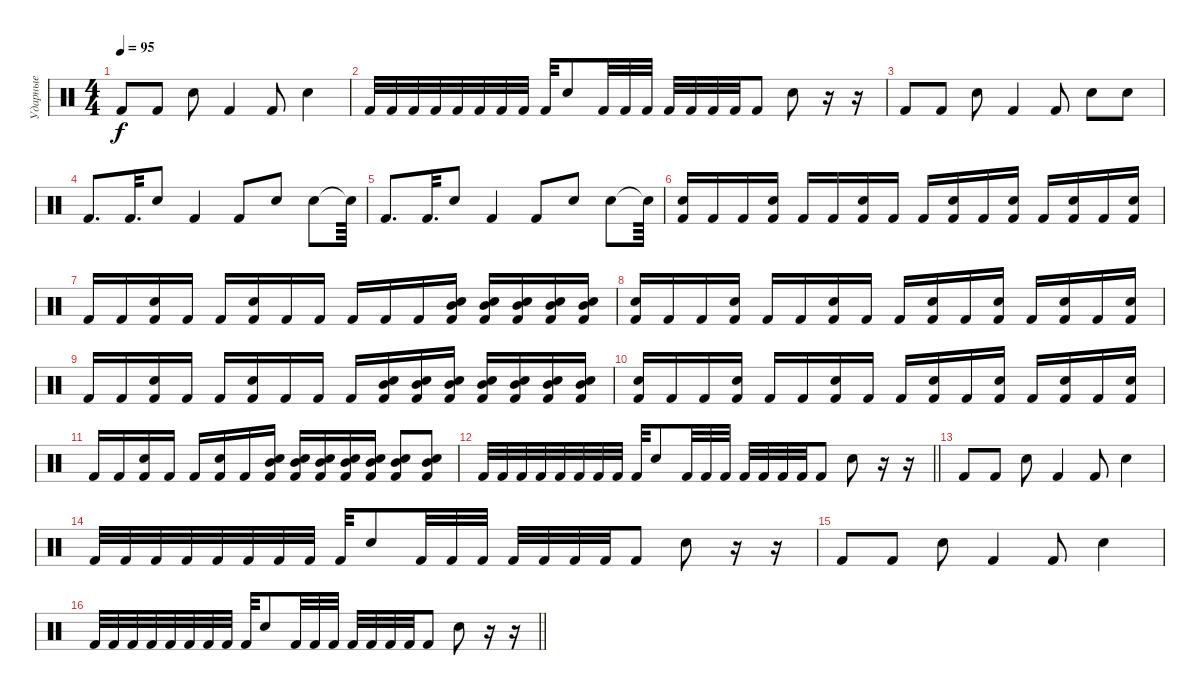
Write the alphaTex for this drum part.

\track ("Ударные" "Ударные") {instrument percussion}
\staff {score}
\articulation defaults
\ts (4 4)
\tempo 95
\clef neutral
\ks c "Kick (hit) 2".8{dy f} "Kick (hit) 2".8 "Electric Snare (hit)".8 "Kick (hit) 2".4 "Kick (hit) 2".8 "Electric Snare (hit)".4
|
"Kick (hit) 2".32 "Kick (hit) 2".32 "Kick (hit) 2".32 "Kick (hit) 2".32 "Kick (hit) 2".32 "Kick (hit) 2".32 "Kick (hit) 2".32 "Kick (hit) 2".32 "Kick (hit) 2".32 "Electric Snare (hit)".8 "Kick (hit) 2".32 "Kick (hit) 2".32 "Kick (hit) 2".32 "Kick (hit) 2".32 "Kick (hit) 2".32 "Kick (hit) 2".32 "Kick (hit) 2".32 "Kick (hit) 2".8 "Electric Snare (hit)".8 r.16 r.16 |
"Kick (hit) 2".8 "Kick (hit) 2".8 "Electric Snare (hit)".8 "Kick (hit) 2".4 "Kick (hit) 2".8 "Electric Snare (hit)".8 "Electric Snare (hit)".8 |
"Kick (hit) 2".8{d} "Kick (hit) 2".32{d} "Electric Snare (hit)".8 "Kick (hit) 2".4 "Kick (hit) 2".8 "Electric Snare (hit)".8 "Electric Snare (hit)".8 "Snare (hit)"{t}.64 |
"Kick (hit) 2".8{d} "Kick (hit) 2".32{d} "Electric Snare (hit)".8 "Kick (hit) 2".4 "Kick (hit) 2".8 "Electric Snare (hit)".8 "Electric Snare (hit)".8 "Snare (hit)"{t}.64 |
("Electric Snare (hit)" "Kick (hit) 2").16 "Kick (hit) 2".16 "Kick (hit) 2".16 ("Electric Snare (hit)" "Kick (hit) 2").16 "Kick (hit) 2".16 "Kick (hit) 2".16 ("Electric Snare (hit)" "Kick (hit) 2").16 "Kick (hit) 2".16 "Kick (hit) 2".16 ("Electric Snare (hit)" "Kick (hit) 2").16 "Kick (hit) 2".16 ("Electric Snare (hit)" "Kick (hit) 2").16 "Kick (hit) 2".16 ("Electric Snare (hit)" "Kick (hit) 2").16 "Kick (hit) 2".16 ("Electric Snare (hit)" "Kick (hit) 2").16 |
"Kick (hit) 2".16 "Kick (hit) 2".16 ("Electric Snare (hit)" "Kick (hit) 2").16 "Kick (hit) 2".16 "Kick (hit) 2".16 ("Electric Snare (hit)" "Kick (hit) 2").16 "Kick (hit) 2".16 "Kick (hit) 2".16 "Kick (hit) 2".16 "Kick (hit) 2".16 "Kick (hit) 2".16 ("Mid Tom (hit)" "Electric Snare (hit)" "Kick (hit) 2").16 ("Mid Tom (hit)" "Electric Snare (hit)" "Kick (hit) 2").16 ("Mid Tom (hit)" "Electric Snare (hit)" "Kick (hit) 2").16 ("Mid Tom (hit)" "Electric Snare (hit)" "Kick (hit) 2").16 ("Mid Tom (hit)" "Electric Snare (hit)" "Kick (hit) 2").16 |
("Electric Snare (hit)" "Kick (hit) 2").16 "Kick (hit) 2".16 "Kick (hit) 2".16 ("Electric Snare (hit)" "Kick (hit) 2").16 "Kick (hit) 2".16 "Kick (hit) 2".16 ("Electric Snare (hit)" "Kick (hit) 2").16 "Kick (hit) 2".16 "Kick (hit) 2".16 ("Electric Snare (hit)" "Kick (hit) 2").16 "Kick (hit) 2".16 ("Electric Snare (hit)" "Kick (hit) 2").16 "Kick (hit) 2".16 ("Electric Snare (hit)" "Kick (hit) 2").16 "Kick (hit) 2".16 ("Electric Snare (hit)" "Kick (hit) 2").16 |
"Kick (hit) 2".16 "Kick (hit) 2".16 ("Electric Snare (hit)" "Kick (hit) 2").16 "Kick (hit) 2".16 "Kick (hit) 2".16 ("Electric Snare (hit)" "Kick (hit) 2").16 "Kick (hit) 2".16 "Kick (hit) 2".16 "Kick (hit) 2".16 ("Mid Tom (hit)" "Electric Snare (hit)" "Kick (hit) 2").16 ("Mid Tom (hit)" "Electric Snare (hit)" "Kick (hit) 2").16 ("Mid Tom (hit)" "Electric Snare (hit)" "Kick (hit) 2").16 ("Mid Tom (hit)" "Electric Snare (hit)" "Kick (hit) 2").16 ("Mid Tom (hit)" "Electric Snare (hit)" "Kick (hit) 2").16 ("Mid Tom (hit)" "Electric Snare (hit)" "Kick (hit) 2").16 ("Mid Tom (hit)" "Electric Snare (hit)" "Kick (hit) 2").16 |
("Electric Snare (hit)" "Kick (hit) 2").16 "Kick (hit) 2".16 "Kick (hit) 2".16 ("Electric Snare (hit)" "Kick (hit) 2").16 "Kick (hit) 2".16 "Kick (hit) 2".16 ("Electric Snare (hit)" "Kick (hit) 2").16 "Kick (hit) 2".16 "Kick (hit) 2".16 ("Electric Snare (hit)" "Kick (hit) 2").16 "Kick (hit) 2".16 ("Electric Snare (hit)" "Kick (hit) 2").16 "Kick (hit) 2".16 ("Electric Snare (hit)" "Kick (hit) 2").16 "Kick (hit) 2".16 ("Electric Snare (hit)" "Kick (hit) 2").16 |
"Kick (hit) 2".16 "Kick (hit) 2".16 ("Electric Snare (hit)" "Kick (hit) 2").16 "Kick (hit) 2".16 "Kick (hit) 2".16 ("Electric Snare (hit)" "Kick (hit) 2").16 "Kick (hit) 2".16 ("Mid Tom (hit)" "Electric Snare (hit)" "Kick (hit) 2").16 ("Mid Tom (hit)" "Electric Snare (hit)" "Kick (hit) 2").16 ("Mid Tom (hit)" "Electric Snare (hit)" "Kick (hit) 2").16 ("Mid Tom (hit)" "Electric Snare (hit)" "Kick (hit) 2").16 ("Mid Tom (hit)" "Electric Snare (hit)" "Kick (hit) 2").16 ("Mid Tom (hit)" "Electric Snare (hit)" "Kick (hit) 2").8 ("Mid Tom (hit)" "Electric Snare (hit)" "Kick (hit) 2").8 |
\barLineRight lightlight "Kick (hit) 2".32 "Kick (hit) 2".32 "Kick (hit) 2".32 "Kick (hit) 2".32 "Kick (hit) 2".32 "Kick (hit) 2".32 "Kick (hit) 2".32 "Kick (hit) 2".32 "Kick (hit) 2".32 "Electric Snare (hit)".8 "Kick (hit) 2".32 "Kick (hit) 2".32 "Kick (hit) 2".32 "Kick (hit) 2".32 "Kick (hit) 2".32 "Kick (hit) 2".32 "Kick (hit) 2".32 "Kick (hit) 2".8 "Electric Snare (hit)".8
r.16 r.16 |
"Kick (hit) 2".8 "Kick (hit) 2".8 "Electric Snare (hit)".8 "Kick (hit) 2".4 "Kick (hit) 2".8 "Electric Snare (hit)".4 |
"Kick (hit) 2".32 "Kick (hit) 2".32 "Kick (hit) 2".32 "Kick (hit) 2".32 "Kick (hit) 2".32 "Kick (hit) 2".32 "Kick (hit) 2".32 "Kick (hit) 2".32 "Kick (hit) 2".32 "Electric Snare (hit)".8 "Kick (hit) 2".32 "Kick (hit) 2".32 "Kick (hit) 2".32 "Kick (hit) 2".32 "Kick (hit) 2".32 "Kick (hit) 2".32 "Kick (hit) 2".32 "Kick (hit) 2".8 "Electric Snare (hit)".8 r.16 r.16 |
"Kick (hit) 2".8 "Kick (hit) 2".8 "Electric Snare (hit)".8 "Kick (hit) 2".4 "Kick (hit) 2".8 "Electric Snare (hit)".4 |
\barLineRight lightlight "Kick (hit) 2".32 "Kick (hit) 2".32 "Kick (hit) 2".32 "Kick (hit) 2".32 "Kick (hit) 2".32 "Kick (hit) 2".32 "Kick (hit) 2".32 "Kick (hit) 2".32 "Kick (hit) 2".32 "Electric Snare (hit)".8 "Kick (hit) 2".32 "Kick (hit) 2".32 "Kick (hit) 2".32 "Kick (hit) 2".32 "Kick (hit) 2".32 "Kick (hit) 2".32 "Kick (hit) 2".32 "Kick (hit) 2".8 "Electric Snare (hit)".8
r.16 r.16
